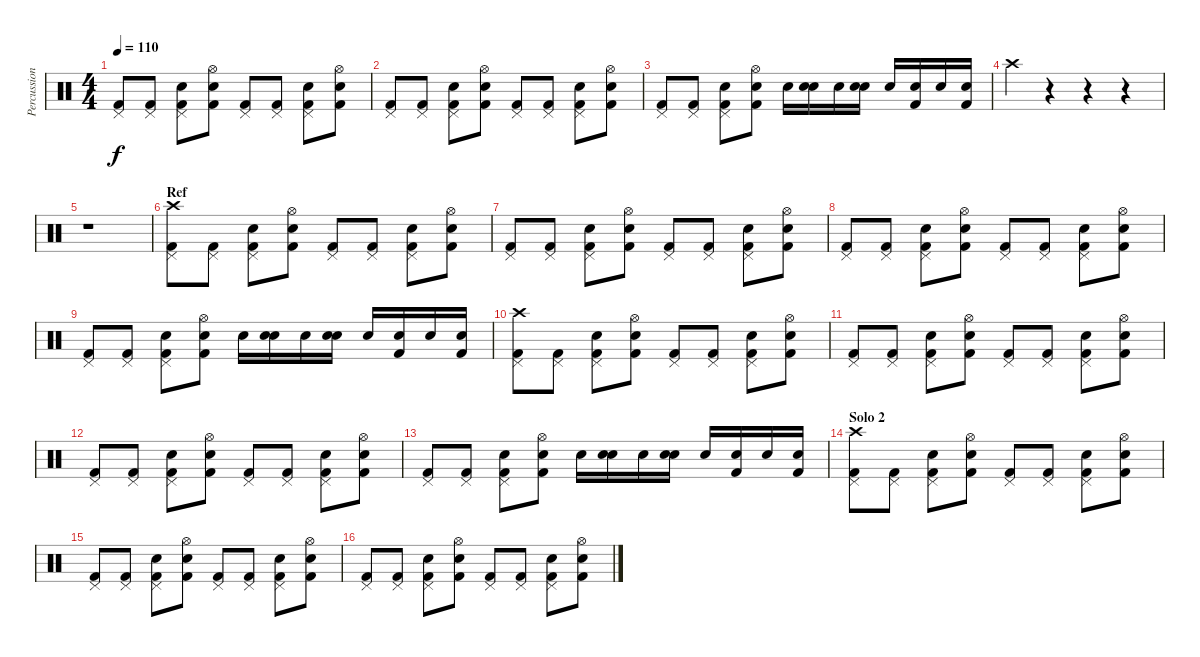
\track ("Percussion" "Percussion") {instrument percussion}
\staff {score}
\articulation defaults
\ts (4 4)
\tempo 110
\clef neutral
\ks c
("Pedal Hi-Hat (hit)" "Kick (hit) 2").8{dy f} ("Pedal Hi-Hat (hit)" "Kick (hit) 2").8 ("Pedal Hi-Hat (hit)" "Snare (hit) 2" "Kick (hit) 2").8 ("Hi-Hat (open)" "Snare (hit) 2" "Kick (hit) 2").8 ("Pedal Hi-Hat (hit)" "Kick (hit) 2").8 ("Pedal Hi-Hat (hit)" "Kick (hit) 2").8 ("Pedal Hi-Hat (hit)" "Snare (hit) 2" "Kick (hit) 2").8 ("Hi-Hat (open)" "Snare (hit) 2" "Kick (hit) 2").8 |
("Pedal Hi-Hat (hit)" "Kick (hit) 2").8 ("Pedal Hi-Hat (hit)" "Kick (hit) 2").8 ("Pedal Hi-Hat (hit)" "Snare (hit) 2" "Kick (hit) 2").8 ("Hi-Hat (open)" "Snare (hit) 2" "Kick (hit) 2").8 ("Pedal Hi-Hat (hit)" "Kick (hit) 2").8 ("Pedal Hi-Hat (hit)" "Kick (hit) 2").8 ("Pedal Hi-Hat (hit)" "Snare (hit) 2" "Kick (hit) 2").8 ("Hi-Hat (open)" "Snare (hit) 2" "Kick (hit) 2").8 |
("Pedal Hi-Hat (hit)" "Kick (hit) 2").8 ("Pedal Hi-Hat (hit)" "Kick (hit) 2").8 ("Pedal Hi-Hat (hit)" "Snare (hit) 2" "Kick (hit) 2").8 ("Hi-Hat (open)" "Snare (hit) 2" "Kick (hit) 2").8 "Snare (hit) 2".16 ("Electric Snare (hit)" "Snare (hit) 2").16 "Snare (hit) 2".16 ("Electric Snare (hit)" "Snare (hit) 2").16 "Snare (hit) 2".16 ("Kick (hit) 2" "Snare (hit) 2").16 "Snare (hit) 2".16 ("Kick (hit) 2" "Snare (hit) 2").16 |
"Crash high (hit)".4 r.4 r.4 r.4 |
r.1 |
\section ("" "Ref")
("Pedal Hi-Hat (hit)" "Crash high (hit)" "Kick (hit) 2").8 ("Pedal Hi-Hat (hit)" "Kick (hit) 2").8 ("Pedal Hi-Hat (hit)" "Snare (hit) 2" "Kick (hit) 2").8 ("Hi-Hat (open)" "Snare (hit) 2" "Kick (hit) 2").8 ("Pedal Hi-Hat (hit)" "Kick (hit) 2").8 ("Pedal Hi-Hat (hit)" "Kick (hit) 2").8 ("Pedal Hi-Hat (hit)" "Snare (hit) 2" "Kick (hit) 2").8 ("Hi-Hat (open)" "Snare (hit) 2" "Kick (hit) 2").8 |
("Pedal Hi-Hat (hit)" "Kick (hit) 2").8 ("Pedal Hi-Hat (hit)" "Kick (hit) 2").8 ("Pedal Hi-Hat (hit)" "Snare (hit) 2" "Kick (hit) 2").8 ("Hi-Hat (open)" "Snare (hit) 2" "Kick (hit) 2").8 ("Pedal Hi-Hat (hit)" "Kick (hit) 2").8 ("Pedal Hi-Hat (hit)" "Kick (hit) 2").8 ("Pedal Hi-Hat (hit)" "Snare (hit) 2" "Kick (hit) 2").8 ("Hi-Hat (open)" "Snare (hit) 2" "Kick (hit) 2").8 |
("Pedal Hi-Hat (hit)" "Kick (hit) 2").8 ("Pedal Hi-Hat (hit)" "Kick (hit) 2").8 ("Pedal Hi-Hat (hit)" "Snare (hit) 2" "Kick (hit) 2").8 ("Hi-Hat (open)" "Snare (hit) 2" "Kick (hit) 2").8 ("Pedal Hi-Hat (hit)" "Kick (hit) 2").8 ("Pedal Hi-Hat (hit)" "Kick (hit) 2").8 ("Pedal Hi-Hat (hit)" "Snare (hit) 2" "Kick (hit) 2").8 ("Hi-Hat (open)" "Snare (hit) 2" "Kick (hit) 2").8 |
("Pedal Hi-Hat (hit)" "Kick (hit) 2").8 ("Pedal Hi-Hat (hit)" "Kick (hit) 2").8 ("Pedal Hi-Hat (hit)" "Snare (hit) 2" "Kick (hit) 2").8 ("Hi-Hat (open)" "Snare (hit) 2" "Kick (hit) 2").8 "Snare (hit) 2".16 ("Electric Snare (hit)" "Snare (hit) 2").16 "Snare (hit) 2".16 ("Electric Snare (hit)" "Snare (hit) 2").16 "Snare (hit) 2".16 ("Kick (hit) 2" "Snare (hit) 2").16 "Snare (hit) 2".16 ("Kick (hit) 2" "Snare (hit) 2").16 |
("Pedal Hi-Hat (hit)" "Crash high (hit)" "Kick (hit) 2").8 ("Pedal Hi-Hat (hit)" "Kick (hit) 2").8 ("Pedal Hi-Hat (hit)" "Snare (hit) 2" "Kick (hit) 2").8 ("Hi-Hat (open)" "Snare (hit) 2" "Kick (hit) 2").8 ("Pedal Hi-Hat (hit)" "Kick (hit) 2").8 ("Pedal Hi-Hat (hit)" "Kick (hit) 2").8 ("Pedal Hi-Hat (hit)" "Snare (hit) 2" "Kick (hit) 2").8 ("Hi-Hat (open)" "Snare (hit) 2" "Kick (hit) 2").8 |
("Pedal Hi-Hat (hit)" "Kick (hit) 2").8 ("Pedal Hi-Hat (hit)" "Kick (hit) 2").8 ("Pedal Hi-Hat (hit)" "Snare (hit) 2" "Kick (hit) 2").8 ("Hi-Hat (open)" "Snare (hit) 2" "Kick (hit) 2").8 ("Pedal Hi-Hat (hit)" "Kick (hit) 2").8 ("Pedal Hi-Hat (hit)" "Kick (hit) 2").8 ("Pedal Hi-Hat (hit)" "Snare (hit) 2" "Kick (hit) 2").8 ("Hi-Hat (open)" "Snare (hit) 2" "Kick (hit) 2").8 |
("Pedal Hi-Hat (hit)" "Kick (hit) 2").8 ("Pedal Hi-Hat (hit)" "Kick (hit) 2").8 ("Pedal Hi-Hat (hit)" "Snare (hit) 2" "Kick (hit) 2").8 ("Hi-Hat (open)" "Snare (hit) 2" "Kick (hit) 2").8 ("Pedal Hi-Hat (hit)" "Kick (hit) 2").8 ("Pedal Hi-Hat (hit)" "Kick (hit) 2").8 ("Pedal Hi-Hat (hit)" "Snare (hit) 2" "Kick (hit) 2").8 ("Hi-Hat (open)" "Snare (hit) 2" "Kick (hit) 2").8 |
("Pedal Hi-Hat (hit)" "Kick (hit) 2").8 ("Pedal Hi-Hat (hit)" "Kick (hit) 2").8 ("Pedal Hi-Hat (hit)" "Snare (hit) 2" "Kick (hit) 2").8 ("Hi-Hat (open)" "Snare (hit) 2" "Kick (hit) 2").8 "Snare (hit) 2".16 ("Electric Snare (hit)" "Snare (hit) 2").16 "Snare (hit) 2".16 ("Electric Snare (hit)" "Snare (hit) 2").16 "Snare (hit) 2".16 ("Kick (hit) 2" "Snare (hit) 2").16 "Snare (hit) 2".16 ("Kick (hit) 2" "Snare (hit) 2").16 |
\section ("" "Solo 2")
("Pedal Hi-Hat (hit)" "Crash high (hit)" "Kick (hit) 2").8 ("Pedal Hi-Hat (hit)" "Kick (hit) 2").8 ("Pedal Hi-Hat (hit)" "Snare (hit) 2" "Kick (hit) 2").8 ("Hi-Hat (open)" "Snare (hit) 2" "Kick (hit) 2").8 ("Pedal Hi-Hat (hit)" "Kick (hit) 2").8 ("Pedal Hi-Hat (hit)" "Kick (hit) 2").8 ("Pedal Hi-Hat (hit)" "Snare (hit) 2" "Kick (hit) 2").8 ("Hi-Hat (open)" "Snare (hit) 2" "Kick (hit) 2").8 |
("Pedal Hi-Hat (hit)" "Kick (hit) 2").8 ("Pedal Hi-Hat (hit)" "Kick (hit) 2").8 ("Pedal Hi-Hat (hit)" "Snare (hit) 2" "Kick (hit) 2").8 ("Hi-Hat (open)" "Snare (hit) 2" "Kick (hit) 2").8 ("Pedal Hi-Hat (hit)" "Kick (hit) 2").8 ("Pedal Hi-Hat (hit)" "Kick (hit) 2").8 ("Pedal Hi-Hat (hit)" "Snare (hit) 2" "Kick (hit) 2").8 ("Hi-Hat (open)" "Snare (hit) 2" "Kick (hit) 2").8 |
("Pedal Hi-Hat (hit)" "Kick (hit) 2").8 ("Pedal Hi-Hat (hit)" "Kick (hit) 2").8 ("Pedal Hi-Hat (hit)" "Snare (hit) 2" "Kick (hit) 2").8 ("Hi-Hat (open)" "Snare (hit) 2" "Kick (hit) 2").8 ("Pedal Hi-Hat (hit)" "Kick (hit) 2").8 ("Pedal Hi-Hat (hit)" "Kick (hit) 2").8 ("Pedal Hi-Hat (hit)" "Snare (hit) 2" "Kick (hit) 2").8 ("Hi-Hat (open)" "Snare (hit) 2" "Kick (hit) 2").8
